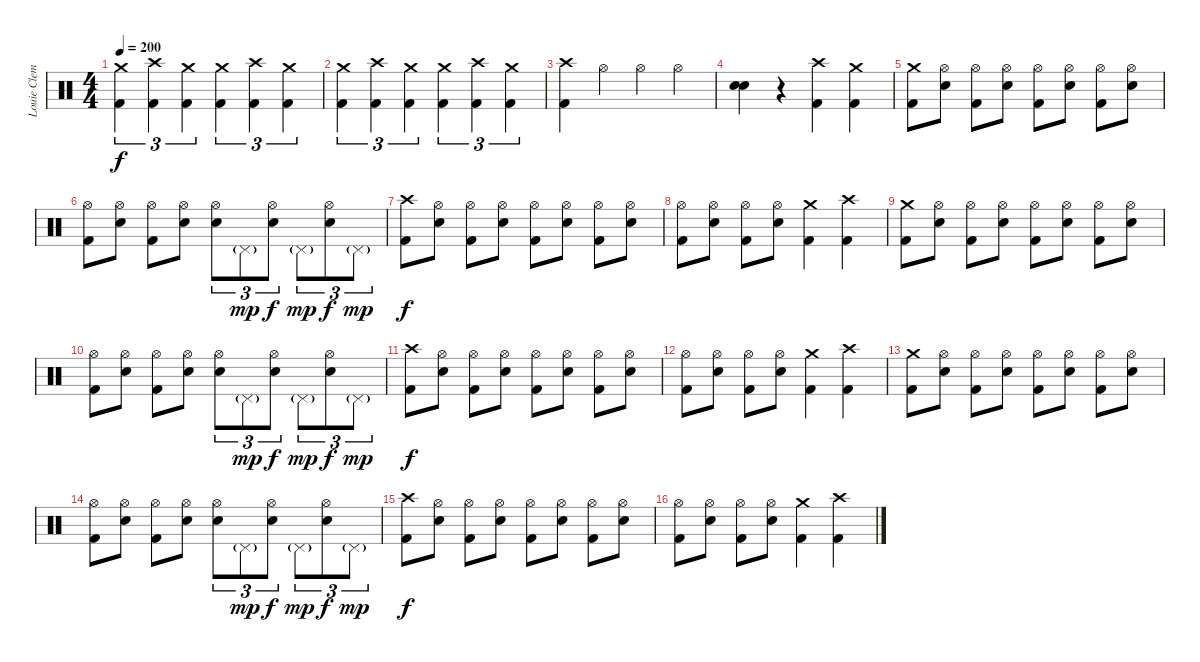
\track ("Louie Clemente" "Louie Clem") {instrument percussion}
\staff {score}
\articulation defaults
\ts (4 4)
\tempo 200
\clef neutral
\ks c
("Crash medium (hit)" "Kick (hit) 2").4{tu (3 2) dy f} ("Crash high (hit)" "Kick (hit) 2").4{tu (3 2)} ("Crash medium (hit)" "Kick (hit) 2").4{tu (3 2)} ("Crash medium (hit)" "Kick (hit) 2").4{tu (3 2)} ("Crash high (hit)" "Kick (hit) 2").4{tu (3 2)} ("Crash medium (hit)" "Kick (hit) 2").4{tu (3 2)} |
("Crash medium (hit)" "Kick (hit) 2").4{tu (3 2)} ("Crash high (hit)" "Kick (hit) 2").4{tu (3 2)} ("Crash medium (hit)" "Kick (hit) 2").4{tu (3 2)} ("Crash medium (hit)" "Kick (hit) 2").4{tu (3 2)} ("Crash high (hit)" "Kick (hit) 2").4{tu (3 2)} ("Crash medium (hit)" "Kick (hit) 2").4{tu (3 2)} |
("Crash high (hit)" "Kick (hit) 2").4 "Hi-Hat (open)".4 "Hi-Hat (open)".4 "Hi-Hat (open)".4 |
("Snare (hit) 2" "Snare (hit) 2").4 r.4 ("Crash high (hit)" "Kick (hit) 2").4 ("Crash medium (hit)" "Kick (hit) 2").4 |
("Crash medium (hit)" "Kick (hit) 2").8 ("Hi-Hat (open)" "Snare (hit) 2").8 ("Hi-Hat (open)" "Kick (hit) 2").8 ("Hi-Hat (open)" "Snare (hit) 2").8 ("Hi-Hat (open)" "Kick (hit) 2").8 ("Hi-Hat (open)" "Snare (hit) 2").8 ("Hi-Hat (open)" "Kick (hit) 2").8 ("Hi-Hat (open)" "Snare (hit) 2").8 |
("Hi-Hat (open)" "Kick (hit) 2").8 ("Hi-Hat (open)" "Snare (hit) 2").8 ("Hi-Hat (open)" "Kick (hit) 2").8 ("Hi-Hat (open)" "Snare (hit) 2").8 ("Hi-Hat (open)" "Snare (hit) 2").8{tu (3 2)} "Pedal Hi-Hat (hit)"{g}.8{tu (3 2) dy mp} ("Hi-Hat (open)" "Snare (hit) 2").8{tu (3 2) dy f} "Pedal Hi-Hat (hit)"{g}.8{tu (3 2) dy mp} ("Hi-Hat (open)" "Snare (hit) 2").8{tu (3 2) dy f} "Pedal Hi-Hat (hit)"{g}.8{tu (3 2) dy mp} |
("Crash high (hit)" "Kick (hit) 2").8{dy f} ("Hi-Hat (open)" "Snare (hit) 2").8 ("Hi-Hat (open)" "Kick (hit) 2").8 ("Hi-Hat (open)" "Snare (hit) 2").8 ("Hi-Hat (open)" "Kick (hit) 2").8 ("Hi-Hat (open)" "Snare (hit) 2").8 ("Hi-Hat (open)" "Kick (hit) 2").8 ("Hi-Hat (open)" "Snare (hit) 2").8 |
("Hi-Hat (open)" "Kick (hit) 2").8 ("Hi-Hat (open)" "Snare (hit) 2").8 ("Hi-Hat (open)" "Kick (hit) 2").8 ("Hi-Hat (open)" "Snare (hit) 2").8 ("Crash medium (hit)" "Kick (hit) 2").4 ("Crash high (hit)" "Kick (hit) 2").4 |
("Crash medium (hit)" "Kick (hit) 2").8 ("Hi-Hat (open)" "Snare (hit) 2").8 ("Hi-Hat (open)" "Kick (hit) 2").8 ("Hi-Hat (open)" "Snare (hit) 2").8 ("Hi-Hat (open)" "Kick (hit) 2").8 ("Hi-Hat (open)" "Snare (hit) 2").8 ("Hi-Hat (open)" "Kick (hit) 2").8 ("Hi-Hat (open)" "Snare (hit) 2").8 |
("Hi-Hat (open)" "Kick (hit) 2").8 ("Hi-Hat (open)" "Snare (hit) 2").8 ("Hi-Hat (open)" "Kick (hit) 2").8 ("Hi-Hat (open)" "Snare (hit) 2").8 ("Hi-Hat (open)" "Snare (hit) 2").8{tu (3 2)} "Pedal Hi-Hat (hit)"{g}.8{tu (3 2) dy mp} ("Hi-Hat (open)" "Snare (hit) 2").8{tu (3 2) dy f} "Pedal Hi-Hat (hit)"{g}.8{tu (3 2) dy mp} ("Hi-Hat (open)" "Snare (hit) 2").8{tu (3 2) dy f} "Pedal Hi-Hat (hit)"{g}.8{tu (3 2) dy mp} |
("Crash high (hit)" "Kick (hit) 2").8{dy f} ("Hi-Hat (open)" "Snare (hit) 2").8 ("Hi-Hat (open)" "Kick (hit) 2").8 ("Hi-Hat (open)" "Snare (hit) 2").8 ("Hi-Hat (open)" "Kick (hit) 2").8 ("Hi-Hat (open)" "Snare (hit) 2").8 ("Hi-Hat (open)" "Kick (hit) 2").8 ("Hi-Hat (open)" "Snare (hit) 2").8 |
("Hi-Hat (open)" "Kick (hit) 2").8 ("Hi-Hat (open)" "Snare (hit) 2").8 ("Hi-Hat (open)" "Kick (hit) 2").8 ("Hi-Hat (open)" "Snare (hit) 2").8 ("Crash medium (hit)" "Kick (hit) 2").4 ("Crash high (hit)" "Kick (hit) 2").4 |
("Crash medium (hit)" "Kick (hit) 2").8 ("Hi-Hat (open)" "Snare (hit) 2").8 ("Hi-Hat (open)" "Kick (hit) 2").8 ("Hi-Hat (open)" "Snare (hit) 2").8 ("Hi-Hat (open)" "Kick (hit) 2").8 ("Hi-Hat (open)" "Snare (hit) 2").8 ("Hi-Hat (open)" "Kick (hit) 2").8 ("Hi-Hat (open)" "Snare (hit) 2").8 |
("Hi-Hat (open)" "Kick (hit) 2").8 ("Hi-Hat (open)" "Snare (hit) 2").8 ("Hi-Hat (open)" "Kick (hit) 2").8 ("Hi-Hat (open)" "Snare (hit) 2").8 ("Hi-Hat (open)" "Snare (hit) 2").8{tu (3 2)} "Pedal Hi-Hat (hit)"{g}.8{tu (3 2) dy mp} ("Hi-Hat (open)" "Snare (hit) 2").8{tu (3 2) dy f} "Pedal Hi-Hat (hit)"{g}.8{tu (3 2) dy mp} ("Hi-Hat (open)" "Snare (hit) 2").8{tu (3 2) dy f} "Pedal Hi-Hat (hit)"{g}.8{tu (3 2) dy mp} |
("Crash high (hit)" "Kick (hit) 2").8{dy f} ("Hi-Hat (open)" "Snare (hit) 2").8 ("Hi-Hat (open)" "Kick (hit) 2").8 ("Hi-Hat (open)" "Snare (hit) 2").8 ("Hi-Hat (open)" "Kick (hit) 2").8 ("Hi-Hat (open)" "Snare (hit) 2").8 ("Hi-Hat (open)" "Kick (hit) 2").8 ("Hi-Hat (open)" "Snare (hit) 2").8 |
("Hi-Hat (open)" "Kick (hit) 2").8 ("Hi-Hat (open)" "Snare (hit) 2").8 ("Hi-Hat (open)" "Kick (hit) 2").8 ("Hi-Hat (open)" "Snare (hit) 2").8 ("Crash medium (hit)" "Kick (hit) 2").4 ("Crash high (hit)" "Kick (hit) 2").4
